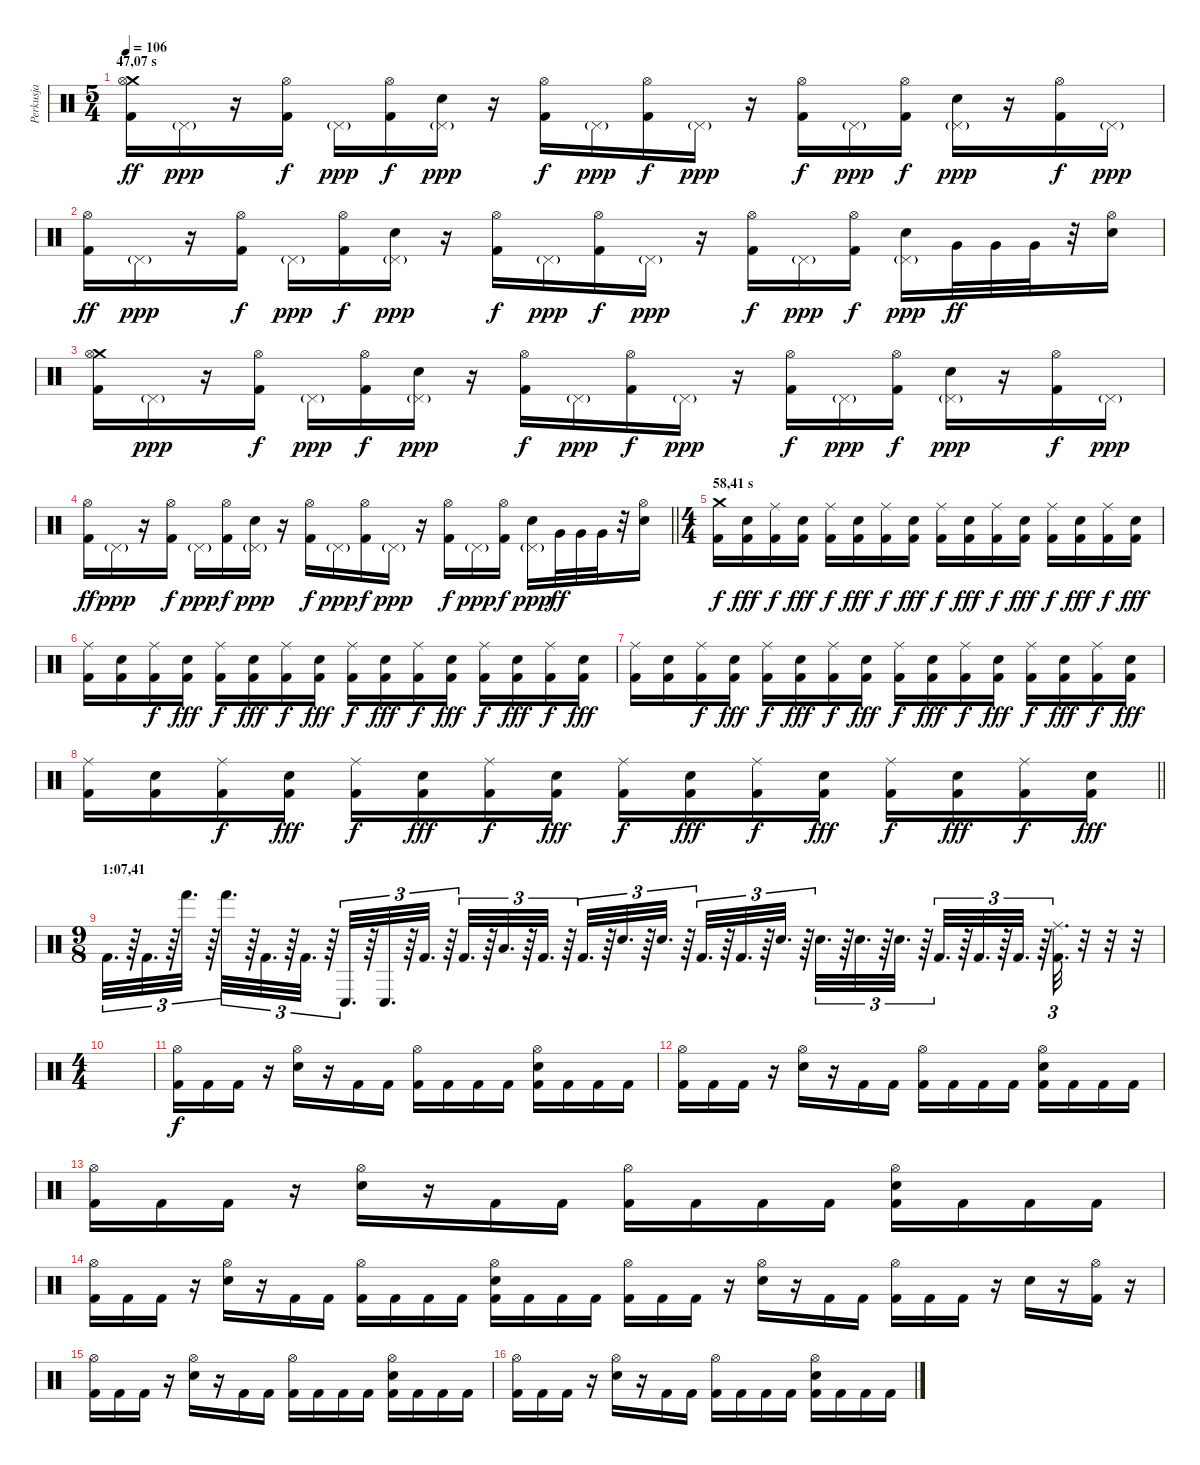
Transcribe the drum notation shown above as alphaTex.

\track ("Perkusja" "Perkusja") {instrument percussion}
\staff {score}
\articulation defaults
\ts (5 4)
\section ("" "47,07 s")
\tempo 106
\clef neutral
\ks c
("Crash medium (hit)" "Hi-Hat (open)" "Kick (hit) 2").16{dy ff} "Pedal Hi-Hat (hit)"{g}.16{dy ppp} r.16 ("Hi-Hat (open)" "Kick (hit) 2").16{dy f} "Pedal Hi-Hat (hit)"{g}.16{dy ppp} ("Hi-Hat (open)" "Kick (hit) 2").16{dy f} ("Pedal Hi-Hat (hit)"{g} "Electric Snare (hit)").16{dy ppp} r.16 ("Hi-Hat (open)" "Kick (hit) 2").16{dy f} "Pedal Hi-Hat (hit)"{g}.16{dy ppp} ("Hi-Hat (open)" "Kick (hit) 2").16{dy f} "Pedal Hi-Hat (hit)"{g}.16{dy ppp} r.16 ("Hi-Hat (open)" "Kick (hit) 2").16{dy f} "Pedal Hi-Hat (hit)"{g}.16{dy ppp} ("Hi-Hat (open)" "Kick (hit) 2").16{dy f} ("Pedal Hi-Hat (hit)"{g} "Electric Snare (hit)").16{dy ppp} r.16 ("Hi-Hat (open)" "Kick (hit) 2").16{dy f} "Pedal Hi-Hat (hit)"{g}.16{dy ppp} |
("Hi-Hat (open)" "Kick (hit) 2").16{dy ff} "Pedal Hi-Hat (hit)"{g}.16{dy ppp} r.16 ("Hi-Hat (open)" "Kick (hit) 2").16{dy f} "Pedal Hi-Hat (hit)"{g}.16{dy ppp} ("Hi-Hat (open)" "Kick (hit) 2").16{dy f} ("Pedal Hi-Hat (hit)"{g} "Electric Snare (hit)").16{dy ppp} r.16 ("Hi-Hat (open)" "Kick (hit) 2").16{dy f} "Pedal Hi-Hat (hit)"{g}.16{dy ppp} ("Hi-Hat (open)" "Kick (hit) 2").16{dy f} "Pedal Hi-Hat (hit)"{g}.16{dy ppp} r.16 ("Hi-Hat (open)" "Kick (hit) 2").16{dy f} "Pedal Hi-Hat (hit)"{g}.16{dy ppp} ("Hi-Hat (open)" "Kick (hit) 2").16{dy f} ("Pedal Hi-Hat (hit)"{g} "Electric Snare (hit)").16{dy ppp} "Very Low Tom (hit)".32{dy ff} "Very Low Tom (hit)".32 "Very Low Tom (hit)".32 r.32 ("Hi-Hat (open)" "Electric Snare (hit)").16 |
("Crash medium (hit)" "Hi-Hat (open)" "Kick (hit) 2").16 "Pedal Hi-Hat (hit)"{g}.16{dy ppp} r.16 ("Hi-Hat (open)" "Kick (hit) 2").16{dy f} "Pedal Hi-Hat (hit)"{g}.16{dy ppp} ("Hi-Hat (open)" "Kick (hit) 2").16{dy f} ("Pedal Hi-Hat (hit)"{g} "Electric Snare (hit)").16{dy ppp} r.16 ("Hi-Hat (open)" "Kick (hit) 2").16{dy f} "Pedal Hi-Hat (hit)"{g}.16{dy ppp} ("Hi-Hat (open)" "Kick (hit) 2").16{dy f} "Pedal Hi-Hat (hit)"{g}.16{dy ppp} r.16 ("Hi-Hat (open)" "Kick (hit) 2").16{dy f} "Pedal Hi-Hat (hit)"{g}.16{dy ppp} ("Hi-Hat (open)" "Kick (hit) 2").16{dy f} ("Pedal Hi-Hat (hit)"{g} "Electric Snare (hit)").16{dy ppp} r.16 ("Hi-Hat (open)" "Kick (hit) 2").16{dy f} "Pedal Hi-Hat (hit)"{g}.16{dy ppp} |
\barLineRight lightlight
("Hi-Hat (open)" "Kick (hit) 2").16{dy ff} "Pedal Hi-Hat (hit)"{g}.16{dy ppp} r.16 ("Hi-Hat (open)" "Kick (hit) 2").16{dy f} "Pedal Hi-Hat (hit)"{g}.16{dy ppp} ("Hi-Hat (open)" "Kick (hit) 2").16{dy f} ("Pedal Hi-Hat (hit)"{g} "Electric Snare (hit)").16{dy ppp} r.16 ("Hi-Hat (open)" "Kick (hit) 2").16{dy f} "Pedal Hi-Hat (hit)"{g}.16{dy ppp} ("Hi-Hat (open)" "Kick (hit) 2").16{dy f} "Pedal Hi-Hat (hit)"{g}.16{dy ppp} r.16 ("Hi-Hat (open)" "Kick (hit) 2").16{dy f} "Pedal Hi-Hat (hit)"{g}.16{dy ppp} ("Hi-Hat (open)" "Kick (hit) 2").16{dy f} ("Pedal Hi-Hat (hit)"{g} "Electric Snare (hit)").16{dy ppp} "Very Low Tom (hit)".32{dy ff} "Very Low Tom (hit)".32 "Very Low Tom (hit)".32 r.32 ("Hi-Hat (open)" "Electric Snare (hit)").16 |
\ts (4 4)
\section ("" "58,41 s")
("Crash medium (hit)" "Kick (hit) 2").16{dy f} ("Electric Snare (hit)" "Kick (hit) 2").16{dy fff} ("Ride (middle)" "Kick (hit) 2").16{dy f} ("Electric Snare (hit)" "Kick (hit) 2").16{dy fff} ("Ride (middle)" "Kick (hit) 2").16{dy f} ("Electric Snare (hit)" "Kick (hit) 2").16{dy fff} ("Ride (middle)" "Kick (hit) 2").16{dy f} ("Electric Snare (hit)" "Kick (hit) 2").16{dy fff} ("Ride (middle)" "Kick (hit) 2").16{dy f} ("Electric Snare (hit)" "Kick (hit) 2").16{dy fff} ("Ride (middle)" "Kick (hit) 2").16{dy f} ("Electric Snare (hit)" "Kick (hit) 2").16{dy fff} ("Ride (middle)" "Kick (hit) 2").16{dy f} ("Electric Snare (hit)" "Kick (hit) 2").16{dy fff} ("Ride (middle)" "Kick (hit) 2").16{dy f} ("Electric Snare (hit)" "Kick (hit) 2").16{dy fff} |
("Ride (middle)" "Kick (hit) 2").16 ("Electric Snare (hit)" "Kick (hit) 2").16 ("Ride (middle)" "Kick (hit) 2").16{dy f} ("Electric Snare (hit)" "Kick (hit) 2").16{dy fff} ("Ride (middle)" "Kick (hit) 2").16{dy f} ("Electric Snare (hit)" "Kick (hit) 2").16{dy fff} ("Ride (middle)" "Kick (hit) 2").16{dy f} ("Electric Snare (hit)" "Kick (hit) 2").16{dy fff} ("Ride (middle)" "Kick (hit) 2").16{dy f} ("Electric Snare (hit)" "Kick (hit) 2").16{dy fff} ("Ride (middle)" "Kick (hit) 2").16{dy f} ("Electric Snare (hit)" "Kick (hit) 2").16{dy fff} ("Ride (middle)" "Kick (hit) 2").16{dy f} ("Electric Snare (hit)" "Kick (hit) 2").16{dy fff} ("Ride (middle)" "Kick (hit) 2").16{dy f} ("Electric Snare (hit)" "Kick (hit) 2").16{dy fff} |
("Ride (middle)" "Kick (hit) 2").16 ("Electric Snare (hit)" "Kick (hit) 2").16 ("Ride (middle)" "Kick (hit) 2").16{dy f} ("Electric Snare (hit)" "Kick (hit) 2").16{dy fff} ("Ride (middle)" "Kick (hit) 2").16{dy f} ("Electric Snare (hit)" "Kick (hit) 2").16{dy fff} ("Ride (middle)" "Kick (hit) 2").16{dy f} ("Electric Snare (hit)" "Kick (hit) 2").16{dy fff} ("Ride (middle)" "Kick (hit) 2").16{dy f} ("Electric Snare (hit)" "Kick (hit) 2").16{dy fff} ("Ride (middle)" "Kick (hit) 2").16{dy f} ("Electric Snare (hit)" "Kick (hit) 2").16{dy fff} ("Ride (middle)" "Kick (hit) 2").16{dy f} ("Electric Snare (hit)" "Kick (hit) 2").16{dy fff} ("Ride (middle)" "Kick (hit) 2").16{dy f} ("Electric Snare (hit)" "Kick (hit) 2").16{dy fff} |
\barLineRight lightlight
("Ride (middle)" "Kick (hit) 2").16 ("Electric Snare (hit)" "Kick (hit) 2").16 ("Ride (middle)" "Kick (hit) 2").16{dy f} ("Electric Snare (hit)" "Kick (hit) 2").16{dy fff} ("Ride (middle)" "Kick (hit) 2").16{dy f} ("Electric Snare (hit)" "Kick (hit) 2").16{dy fff} ("Ride (middle)" "Kick (hit) 2").16{dy f} ("Electric Snare (hit)" "Kick (hit) 2").16{dy fff} ("Ride (middle)" "Kick (hit) 2").16{dy f} ("Electric Snare (hit)" "Kick (hit) 2").16{dy fff} ("Ride (middle)" "Kick (hit) 2").16{dy f} ("Electric Snare (hit)" "Kick (hit) 2").16{dy fff} ("Ride (middle)" "Kick (hit) 2").16{dy f} ("Electric Snare (hit)" "Kick (hit) 2").16{dy fff} ("Ride (middle)" "Kick (hit) 2").16{dy f} ("Electric Snare (hit)" "Kick (hit) 2").16{dy fff} |
\ts (9 8)
\section ("" "1:07,41")
"Kick (hit) 2".32{d tu (3 2)} r.64{tu (3 2)} "Kick (hit) 2".32{d tu (3 2)} r.64{tu (3 2)} "Hand (hit)".32{d tu (3 2)} r.64{tu (3 2)} "Hand (hit)".32{d tu (3 2)} r.64{tu (3 2)} "Kick (hit) 2".32{d tu (3 2)} r.64{tu (3 2)} "Kick (hit) 2".32{d tu (3 2)} r.64{tu (3 2)} "Conga low (hit)".32{d tu (3 2)} r.64{tu (3 2)} "Conga low (hit)".32{d tu (3 2)} r.64{tu (3 2)} "Kick (hit) 2".32{d tu (3 2)} r.64{tu (3 2)} "Kick (hit) 2".32{d tu (3 2)} r.64{tu (3 2)} "Low Tom (hit)".32{d tu (3 2)} r.64{tu (3 2)} "Kick (hit) 2".32{d tu (3 2)} r.64{tu (3 2)} "Kick (hit) 2".32{d tu (3 2)} r.64{tu (3 2)} "Electric Snare (hit)".32{d tu (3 2)} r.64{tu (3 2)} "Electric Snare (hit)".32{d tu (3 2)} r.64{tu (3 2)} "Kick (hit) 2".32{d tu (3 2)} r.64{tu (3 2)} "Kick (hit) 2".32{d tu (3 2)} r.64{tu (3 2)} "Electric Snare (hit)".32{d tu (3 2)} r.64{tu (3 2)} "Electric Snare (hit)".32{d tu (3 2)} r.64{tu (3 2)} "Electric Snare (hit)".32{d tu (3 2)} r.64{tu (3 2)} "Electric Snare (hit)".32{d tu (3 2)} r.64{tu (3 2)} "Kick (hit) 2".32{d tu (3 2)} r.64{tu (3 2)} "Kick (hit) 2".32{d tu (3 2)} r.64{tu (3 2)} "Kick (hit) 2".32{d tu (3 2)} r.64{tu (3 2)} ("Ride (middle)" "Kick (hit) 2").32{d tu (3 2)} r.32 r.32 r.32 |
\ts (4 4)
|
("Hi-Hat (open)" "Kick (hit) 2").16{dy f} "Kick (hit) 2".16 "Kick (hit) 2".16 r.16 ("Hi-Hat (open)" "Electric Snare (hit)").16 r.16 "Kick (hit) 2".16 "Kick (hit) 2".16 ("Hi-Hat (open)" "Kick (hit) 2").16 "Kick (hit) 2".16 "Kick (hit) 2".16 "Kick (hit) 2".16 ("Hi-Hat (open)" "Electric Snare (hit)" "Kick (hit) 2").16 "Kick (hit) 2".16 "Kick (hit) 2".16 "Kick (hit) 2".16 |
("Hi-Hat (open)" "Kick (hit) 2").16 "Kick (hit) 2".16 "Kick (hit) 2".16 r.16 ("Hi-Hat (open)" "Electric Snare (hit)").16 r.16 "Kick (hit) 2".16 "Kick (hit) 2".16 ("Hi-Hat (open)" "Kick (hit) 2").16 "Kick (hit) 2".16 "Kick (hit) 2".16 "Kick (hit) 2".16 ("Hi-Hat (open)" "Electric Snare (hit)" "Kick (hit) 2").16 "Kick (hit) 2".16 "Kick (hit) 2".16 "Kick (hit) 2".16 |
("Hi-Hat (open)" "Kick (hit) 2").16 "Kick (hit) 2".16 "Kick (hit) 2".16 r.16 ("Hi-Hat (open)" "Electric Snare (hit)").16 r.16 "Kick (hit) 2".16 "Kick (hit) 2".16 ("Hi-Hat (open)" "Kick (hit) 2").16 "Kick (hit) 2".16 "Kick (hit) 2".16 "Kick (hit) 2".16 ("Hi-Hat (open)" "Electric Snare (hit)" "Kick (hit) 2").16 "Kick (hit) 2".16 "Kick (hit) 2".16 "Kick (hit) 2".16 |
("Hi-Hat (open)" "Kick (hit) 2").16 "Kick (hit) 2".16 "Kick (hit) 2".16 r.16 ("Hi-Hat (open)" "Electric Snare (hit)").16 r.16 "Kick (hit) 2".16 "Kick (hit) 2".16 ("Hi-Hat (open)" "Kick (hit) 2").16 "Kick (hit) 2".16 "Kick (hit) 2".16 "Kick (hit) 2".16 ("Hi-Hat (open)" "Electric Snare (hit)" "Kick (hit) 2").16 "Kick (hit) 2".16 "Kick (hit) 2".16 "Kick (hit) 2".16 ("Hi-Hat (open)" "Kick (hit) 2").16 "Kick (hit) 2".16 "Kick (hit) 2".16 r.16 ("Hi-Hat (open)" "Electric Snare (hit)").16 r.16 "Kick (hit) 2".16 "Kick (hit) 2".16 ("Hi-Hat (open)" "Kick (hit) 2").16 "Kick (hit) 2".16 "Kick (hit) 2".16 r.16 "Electric Snare (hit)".16 r.16 ("Hi-Hat (open)" "Kick (hit) 2").16 r.16 |
("Hi-Hat (open)" "Kick (hit) 2").16 "Kick (hit) 2".16 "Kick (hit) 2".16 r.16 ("Hi-Hat (open)" "Electric Snare (hit)").16 r.16 "Kick (hit) 2".16 "Kick (hit) 2".16 ("Hi-Hat (open)" "Kick (hit) 2").16 "Kick (hit) 2".16 "Kick (hit) 2".16 "Kick (hit) 2".16 ("Hi-Hat (open)" "Electric Snare (hit)" "Kick (hit) 2").16 "Kick (hit) 2".16 "Kick (hit) 2".16 "Kick (hit) 2".16 |
("Hi-Hat (open)" "Kick (hit) 2").16 "Kick (hit) 2".16 "Kick (hit) 2".16 r.16 ("Hi-Hat (open)" "Electric Snare (hit)").16 r.16 "Kick (hit) 2".16 "Kick (hit) 2".16 ("Hi-Hat (open)" "Kick (hit) 2").16 "Kick (hit) 2".16 "Kick (hit) 2".16 "Kick (hit) 2".16 ("Hi-Hat (open)" "Electric Snare (hit)" "Kick (hit) 2").16 "Kick (hit) 2".16 "Kick (hit) 2".16 "Kick (hit) 2".16
